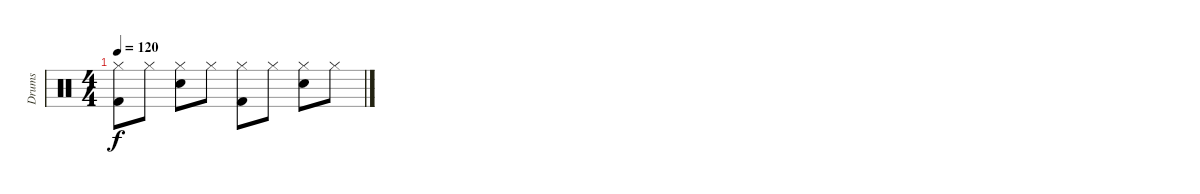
\track ("Drums" "Drums") {instrument percussion}
\staff {score}
\articulation defaults
\ts (4 4)
\tempo 120
\clef neutral
\ks c
("Hi-Hat (closed)" "Kick (hit) 2").8{dy f} "Hi-Hat (closed)".8 ("Hi-Hat (closed)" "Snare (hit) 2").8 "Hi-Hat (closed)".8 ("Hi-Hat (closed)" "Kick (hit) 2").8 "Hi-Hat (closed)".8 ("Hi-Hat (closed)" "Snare (hit) 2").8 "Hi-Hat (closed)".8
